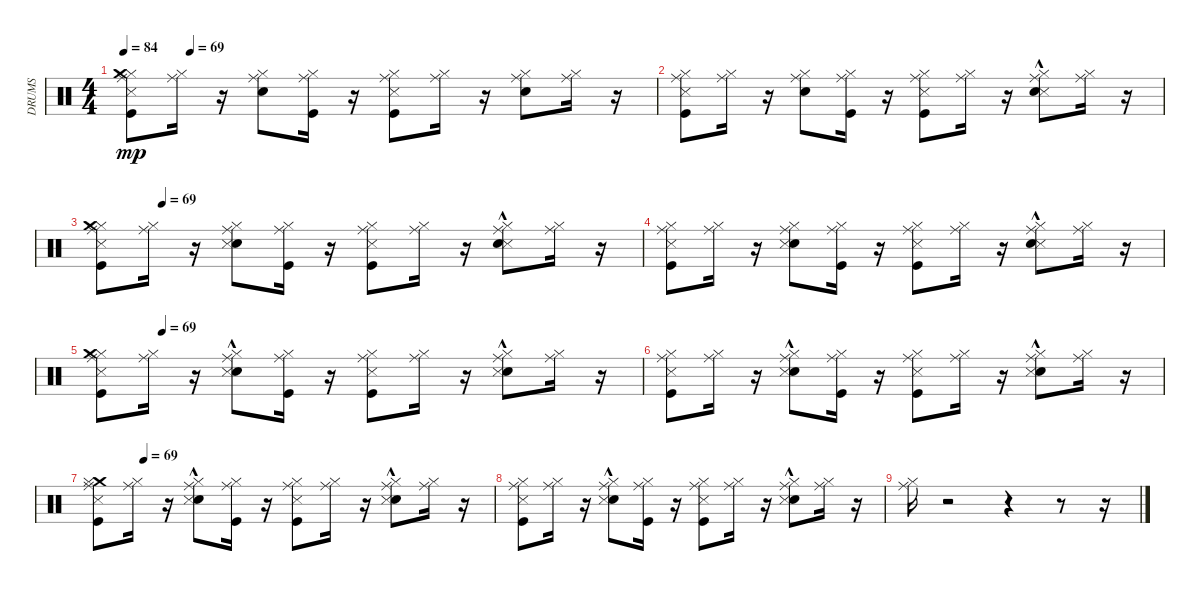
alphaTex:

\track ("DRUMS" "DRUMS") {instrument percussion}
\staff {score}
\articulation defaults
\ts (4 4)
\tempo 84
\tempo (69 0.125)
\tempo 84
\clef neutral
\ks c
("Metronome (hit)" "Kick (hit)" "Ride (middle)" "Hi-Hat (closed)" "Crash medium (hit)").8{dy mp} ("Hi-Hat (closed)" "Ride (middle)").16 r.16 ("Hi-Hat (closed)" "Electric Snare (hit)" "Ride (middle)").8 ("Hi-Hat (closed)" "Ride (middle)" "Kick (hit)").16 r.16 ("Hi-Hat (closed)" "Metronome (hit)" "Ride (middle)" "Kick (hit)").8 ("Hi-Hat (closed)" "Ride (middle)").16 r.16 ("Hi-Hat (closed)" "Electric Snare (hit)" "Ride (middle)").8 ("Hi-Hat (closed)" "Ride (middle)").16 r.16 |
("Hi-Hat (closed)" "Metronome (hit)" "Ride (middle)" "Kick (hit)").8 ("Hi-Hat (closed)" "Ride (middle)").16 r.16 ("Hi-Hat (closed)" "Electric Snare (hit)" "Ride (middle)").8 ("Hi-Hat (closed)" "Ride (middle)" "Kick (hit)").16 r.16 ("Hi-Hat (closed)" "Metronome (hit)" "Ride (middle)" "Kick (hit)").8 ("Hi-Hat (closed)" "Ride (middle)").16 r.16 ("Hi-Hat (closed)" "Snare (side stick) 3"{hac} "Ride (middle)" "Electric Snare (hit)").8 ("Hi-Hat (closed)" "Ride (middle)").16 r.16 |
\tempo (69 0.125)
("Hi-Hat (closed)" "Metronome (hit)" "Kick (hit)" "Ride (middle)" "Crash medium (hit)").8 ("Ride (middle)" "Hi-Hat (closed)").16 r.16 ("Hi-Hat (closed)" "Electric Snare (hit)" "Ride (middle)" "Snare (side stick) 3").8 ("Hi-Hat (closed)" "Ride (middle)" "Kick (hit)").16 r.16 ("Hi-Hat (closed)" "Kick (hit)" "Ride (middle)" "Metronome (hit)").8 ("Hi-Hat (closed)" "Ride (middle)").16 r.16 ("Hi-Hat (closed)" "Ride (middle)" "Snare (side stick) 3"{hac} "Electric Snare (hit)").8 ("Ride (middle)" "Hi-Hat (closed)").16 r.16 |
("Hi-Hat (closed)" "Metronome (hit)" "Kick (hit)" "Ride (middle)").8 ("Hi-Hat (closed)" "Ride (middle)").16 r.16 ("Hi-Hat (closed)" "Electric Snare (hit)" "Ride (middle)" "Snare (side stick) 3").8 ("Hi-Hat (closed)" "Kick (hit)" "Ride (middle)").16 r.16 ("Hi-Hat (closed)" "Metronome (hit)" "Kick (hit)" "Ride (middle)").8 ("Hi-Hat (closed)" "Ride (middle)").16 r.16 ("Hi-Hat (closed)" "Ride (middle)" "Snare (side stick) 3"{hac} "Electric Snare (hit)").8 ("Hi-Hat (closed)" "Ride (middle)").16 r.16 |
\tempo (69 0.125)
("Hi-Hat (closed)" "Metronome (hit)" "Kick (hit)" "Ride (middle)" "Crash medium (hit)").8 ("Hi-Hat (closed)" "Ride (middle)").16 r.16 ("Hi-Hat (closed)" "Electric Snare (hit)" "Ride (middle)" "Snare (side stick) 3"{hac}).8 ("Hi-Hat (closed)" "Kick (hit)" "Ride (middle)").16 r.16 ("Hi-Hat (closed)" "Metronome (hit)" "Kick (hit)" "Ride (middle)").8 ("Hi-Hat (closed)" "Ride (middle)").16 r.16 ("Hi-Hat (closed)" "Electric Snare (hit)" "Snare (side stick) 3"{hac} "Ride (middle)").8 ("Hi-Hat (closed)" "Ride (middle)").16 r.16 |
("Hi-Hat (closed)" "Metronome (hit)" "Ride (middle)" "Kick (hit)").8 ("Hi-Hat (closed)" "Ride (middle)").16 r.16 ("Hi-Hat (closed)" "Electric Snare (hit)" "Ride (middle)" "Snare (side stick) 3"{hac}).8 ("Hi-Hat (closed)" "Ride (middle)" "Kick (hit)").16 r.16 ("Hi-Hat (closed)" "Metronome (hit)" "Ride (middle)" "Kick (hit)").8 ("Hi-Hat (closed)" "Ride (middle)").16 r.16 ("Hi-Hat (closed)" "Electric Snare (hit)" "Snare (side stick) 3"{hac} "Ride (middle)").8 ("Hi-Hat (closed)" "Ride (middle)").16 r.16 |
\tempo (69 0.125)
("Crash medium (hit)" "Hi-Hat (closed)" "Metronome (hit)" "Kick (hit)" "Ride (middle)").8 ("Hi-Hat (closed)" "Ride (middle)").16 r.16 ("Electric Snare (hit)" "Snare (side stick) 3"{hac} "Ride (middle)" "Hi-Hat (closed)").8 ("Hi-Hat (closed)" "Kick (hit)" "Ride (middle)").16 r.16 ("Hi-Hat (closed)" "Metronome (hit)" "Ride (middle)" "Kick (hit)").8 ("Hi-Hat (closed)" "Ride (middle)").16 r.16 ("Hi-Hat (closed)" "Electric Snare (hit)" "Snare (side stick) 3"{hac} "Ride (middle)").8 ("Hi-Hat (closed)" "Ride (middle)").16 r.16 |
("Hi-Hat (closed)" "Metronome (hit)" "Kick (hit)" "Ride (middle)").8 ("Hi-Hat (closed)" "Ride (middle)").16 r.16 ("Hi-Hat (closed)" "Electric Snare (hit)" "Snare (side stick) 3"{hac} "Ride (middle)").8 ("Hi-Hat (closed)" "Ride (middle)" "Kick (hit)").16 r.16 ("Hi-Hat (closed)" "Metronome (hit)" "Ride (middle)" "Kick (hit)").8 ("Hi-Hat (closed)" "Ride (middle)").16 r.16 ("Hi-Hat (closed)" "Electric Snare (hit)" "Snare (side stick) 3"{hac} "Ride (middle)").8 ("Hi-Hat (closed)" "Ride (middle)").16 r.16 |
("Hi-Hat (closed)" "Ride (middle)").16 r.2 r.4 r.8 r.16
